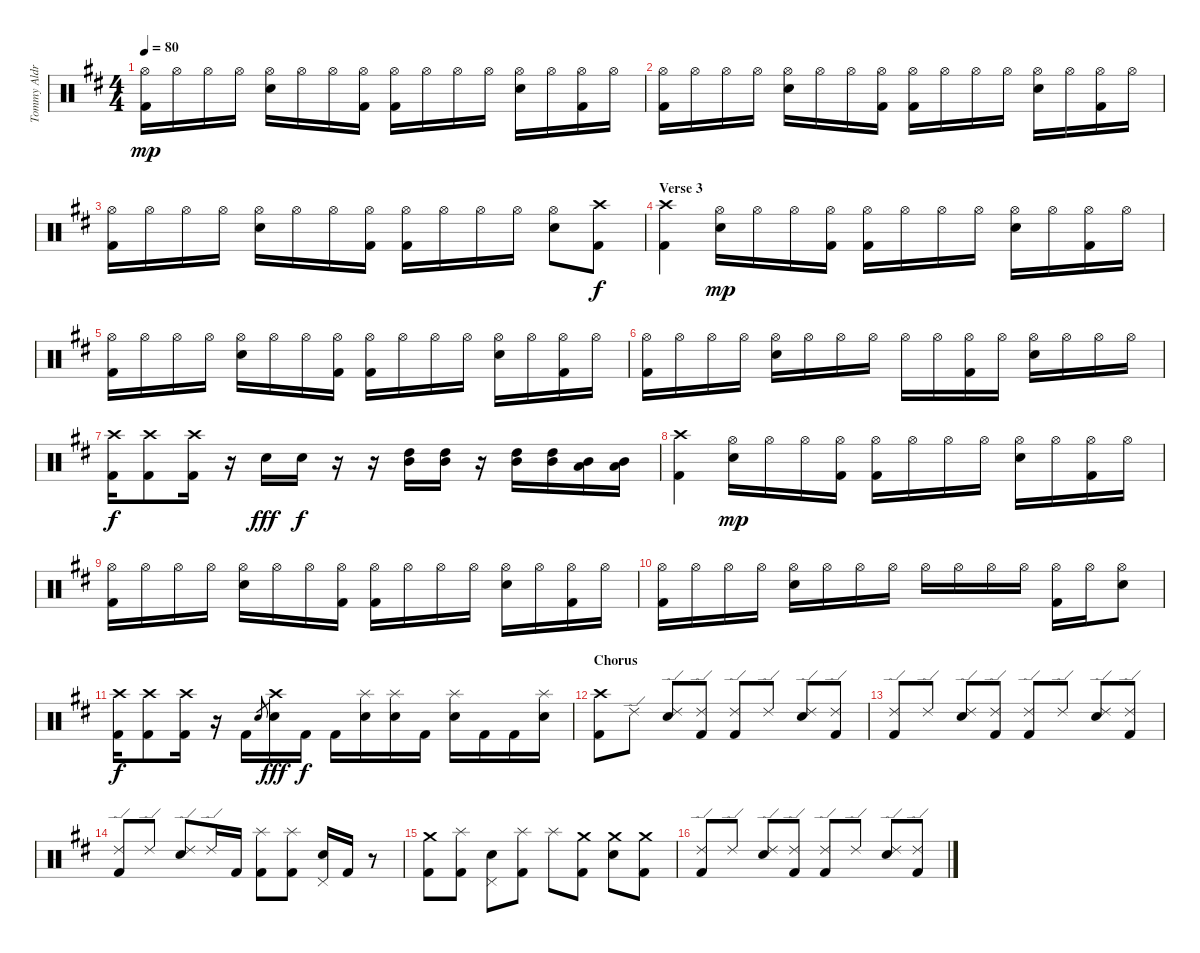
\track ("Tommy Aldridge" "Tommy Aldr") {instrument percussion}
\staff {score}
\articulation defaults
\ts (4 4)
\tempo 80
\clef neutral
\ks bminor
("Hi-Hat (open)" "Kick (hit) 2").16{dy mp} "Hi-Hat (open)".16 "Hi-Hat (open)".16 "Hi-Hat (open)".16 ("Hi-Hat (open)" "Snare (hit) 2").16 "Hi-Hat (open)".16 "Hi-Hat (open)".16 ("Hi-Hat (open)" "Kick (hit) 2").16 ("Hi-Hat (open)" "Kick (hit) 2").16 "Hi-Hat (open)".16 "Hi-Hat (open)".16 "Hi-Hat (open)".16 ("Hi-Hat (open)" "Snare (hit) 2").16 "Hi-Hat (open)".16 ("Hi-Hat (open)" "Kick (hit) 2").16 "Hi-Hat (open)".16 |
("Hi-Hat (open)" "Kick (hit) 2").16 "Hi-Hat (open)".16 "Hi-Hat (open)".16 "Hi-Hat (open)".16 ("Hi-Hat (open)" "Snare (hit) 2").16 "Hi-Hat (open)".16 "Hi-Hat (open)".16 ("Hi-Hat (open)" "Kick (hit) 2").16 ("Hi-Hat (open)" "Kick (hit) 2").16 "Hi-Hat (open)".16 "Hi-Hat (open)".16 "Hi-Hat (open)".16 ("Hi-Hat (open)" "Snare (hit) 2").16 "Hi-Hat (open)".16 ("Hi-Hat (open)" "Kick (hit) 2").16 "Hi-Hat (open)".16 |
("Hi-Hat (open)" "Kick (hit) 2").16 "Hi-Hat (open)".16 "Hi-Hat (open)".16 "Hi-Hat (open)".16 ("Hi-Hat (open)" "Snare (hit) 2").16 "Hi-Hat (open)".16 "Hi-Hat (open)".16 ("Hi-Hat (open)" "Kick (hit) 2").16 ("Hi-Hat (open)" "Kick (hit) 2").16 "Hi-Hat (open)".16 "Hi-Hat (open)".16 "Hi-Hat (open)".16 ("Hi-Hat (open)" "Snare (hit) 2").8 ("Crash high (hit)" "Kick (hit) 2").8{dy f} |
\section ("" "Verse 3")
("Crash high (hit)" "Kick (hit) 2").4 ("Hi-Hat (open)" "Snare (hit) 2").16{dy mp} "Hi-Hat (open)".16 "Hi-Hat (open)".16 ("Hi-Hat (open)" "Kick (hit) 2").16 ("Hi-Hat (open)" "Kick (hit) 2").16 "Hi-Hat (open)".16 "Hi-Hat (open)".16 "Hi-Hat (open)".16 ("Hi-Hat (open)" "Snare (hit) 2").16 "Hi-Hat (open)".16 ("Hi-Hat (open)" "Kick (hit) 2").16 "Hi-Hat (open)".16 |
("Hi-Hat (open)" "Kick (hit) 2").16 "Hi-Hat (open)".16 "Hi-Hat (open)".16 "Hi-Hat (open)".16 ("Hi-Hat (open)" "Snare (hit) 2").16 "Hi-Hat (open)".16 "Hi-Hat (open)".16 ("Hi-Hat (open)" "Kick (hit) 2").16 ("Hi-Hat (open)" "Kick (hit) 2").16 "Hi-Hat (open)".16 "Hi-Hat (open)".16 "Hi-Hat (open)".16 ("Hi-Hat (open)" "Snare (hit) 2").16 "Hi-Hat (open)".16 ("Hi-Hat (open)" "Kick (hit) 2").16 "Hi-Hat (open)".16 |
("Hi-Hat (open)" "Kick (hit) 2").16 "Hi-Hat (open)".16 "Hi-Hat (open)".16 "Hi-Hat (open)".16 ("Hi-Hat (open)" "Snare (hit) 2").16 "Hi-Hat (open)".16 "Hi-Hat (open)".16 "Hi-Hat (open)".16 "Hi-Hat (open)".16 "Hi-Hat (open)".16 ("Hi-Hat (open)" "Kick (hit) 2").16 "Hi-Hat (open)".16 ("Hi-Hat (open)" "Snare (hit) 2").16 "Hi-Hat (open)".16 "Hi-Hat (open)".16 "Hi-Hat (open)".16 |
("Crash high (hit)" "Kick (hit) 2").16{dy f} ("Crash high (hit)" "Kick (hit) 2").8 ("Crash high (hit)" "Kick (hit) 2").16 r.16 "Snare (hit) 2".16{dy fff} "Snare (hit) 2".16{dy f} r.16 r.16 ("Mid Tom (hit)" "High Tom (hit)").16 ("Mid Tom (hit)" "High Tom (hit)").16 r.16 ("Mid Tom (hit)" "High Tom (hit)").16 ("Mid Tom (hit)" "High Tom (hit)").16 ("Low Tom (hit)" "Mid Tom (hit)").16 ("Low Tom (hit)" "Mid Tom (hit)").16 |
("Crash high (hit)" "Kick (hit) 2").4 ("Hi-Hat (open)" "Snare (hit) 2").16{dy mp} "Hi-Hat (open)".16 "Hi-Hat (open)".16 ("Hi-Hat (open)" "Kick (hit) 2").16 ("Hi-Hat (open)" "Kick (hit) 2").16 "Hi-Hat (open)".16 "Hi-Hat (open)".16 "Hi-Hat (open)".16 ("Hi-Hat (open)" "Snare (hit) 2").16 "Hi-Hat (open)".16 ("Hi-Hat (open)" "Kick (hit) 2").16 "Hi-Hat (open)".16 |
("Hi-Hat (open)" "Kick (hit) 2").16 "Hi-Hat (open)".16 "Hi-Hat (open)".16 "Hi-Hat (open)".16 ("Hi-Hat (open)" "Snare (hit) 2").16 "Hi-Hat (open)".16 "Hi-Hat (open)".16 ("Hi-Hat (open)" "Kick (hit) 2").16 ("Hi-Hat (open)" "Kick (hit) 2").16 "Hi-Hat (open)".16 "Hi-Hat (open)".16 "Hi-Hat (open)".16 ("Hi-Hat (open)" "Snare (hit) 2").16 "Hi-Hat (open)".16 ("Hi-Hat (open)" "Kick (hit) 2").16 "Hi-Hat (open)".16 |
("Hi-Hat (open)" "Kick (hit) 2").16 "Hi-Hat (open)".16 "Hi-Hat (open)".16 "Hi-Hat (open)".16 ("Hi-Hat (open)" "Snare (hit) 2").16 "Hi-Hat (open)".16 "Hi-Hat (open)".16 "Hi-Hat (open)".16 "Hi-Hat (open)".16 "Hi-Hat (open)".16 "Hi-Hat (open)".16 "Hi-Hat (open)".16 ("Hi-Hat (open)" "Kick (hit) 2").16 "Hi-Hat (open)".16 ("Hi-Hat (open)" "Snare (hit) 2").8 |
("Crash high (hit)" "Kick (hit) 2").16{dy f} ("Crash high (hit)" "Kick (hit) 2").8 ("Crash high (hit)" "Kick (hit) 2").16 r.16 "Kick (hit) 2".16 "Snare (hit) 2".8{gr} ("Crash high (hit)" "Snare (hit) 2").16{dy fff} "Kick (hit) 2".16{dy f} "Kick (hit) 2".16 ("Splash (hit)" "Snare (hit) 2").16 ("Splash (hit)" "Snare (hit) 2").16 "Kick (hit) 2".16 ("Splash (hit)" "Snare (hit) 2").16 "Kick (hit) 2".16 "Kick (hit) 2".16 ("Splash (hit)" "Snare (hit) 2").16 |
\section ("" "Chorus")
("Crash high (hit)" "Kick (hit) 2").8 "Ride (edge) 2".8 ("Ride (edge) 2" "Snare (hit) 2").8 ("Ride (edge) 2" "Kick (hit) 2").8 ("Ride (edge) 2" "Kick (hit) 2").8 "Ride (edge) 2".8 ("Ride (edge) 2" "Snare (hit) 2").8 ("Ride (edge) 2" "Kick (hit) 2").8 |
("Ride (edge) 2" "Kick (hit) 2").8 "Ride (edge) 2".8 ("Ride (edge) 2" "Snare (hit) 2").8 ("Ride (edge) 2" "Kick (hit) 2").8 ("Ride (edge) 2" "Kick (hit) 2").8 "Ride (edge) 2".8 ("Ride (edge) 2" "Snare (hit) 2").8 ("Ride (edge) 2" "Kick (hit) 2").8 |
("Ride (edge) 2" "Kick (hit) 2").8 "Ride (edge) 2".8 ("Ride (edge) 2" "Snare (hit) 2").8 "Ride (edge) 2".16 "Kick (hit) 2".16 ("Splash (hit)" "Kick (hit) 2").8 ("Splash (hit)" "Kick (hit) 2").8 ("Pedal Hi-Hat (hit)" "Snare (hit) 2").16 "Kick (hit) 2".16 r.8 |
("Crash medium (hit)" "Kick (hit) 2").8 ("Splash (hit)" "Kick (hit) 2").8 ("Pedal Hi-Hat (hit)" "Snare (hit) 2").8 ("Splash (hit)" "Kick (hit) 2").8 "Splash (hit)".8 ("Crash medium (hit)" "Kick (hit) 2").8 ("Crash medium (hit)" "Snare (hit) 2").8 ("Crash medium (hit)" "Kick (hit) 2").8 |
("Ride (edge) 2" "Kick (hit) 2").8 "Ride (edge) 2".8 ("Ride (edge) 2" "Snare (hit) 2").8 ("Ride (edge) 2" "Kick (hit) 2").8 ("Ride (edge) 2" "Kick (hit) 2").8 "Ride (edge) 2".8 ("Ride (edge) 2" "Snare (hit) 2").8 ("Ride (edge) 2" "Kick (hit) 2").8
